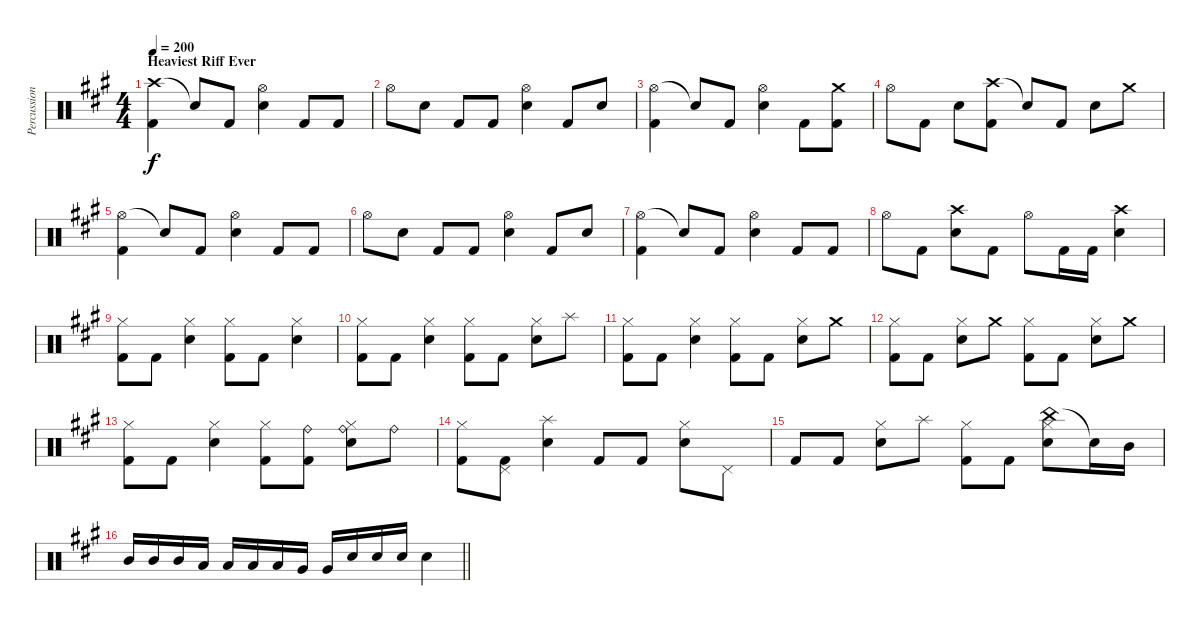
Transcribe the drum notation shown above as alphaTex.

\track ("Percussion" "Percussion") {instrument percussion}
\staff {score}
\articulation defaults
\ts (4 4)
\section ("" "Heaviest Riff Ever")
\tempo 200
\clef neutral
\ks f#minor
("Crash high (hit)" "Kick (hit) 2").4{dy f} "Snare (hit)"{t}.8 "Kick (hit) 2".8 ("Hi-Hat (open)" "Electric Snare (hit)").4 "Kick (hit) 2".8 "Kick (hit) 2".8 |
"Hi-Hat (open)".8 "Electric Snare (hit)".8 "Kick (hit) 2".8 "Kick (hit) 2".8 ("Hi-Hat (open)" "Electric Snare (hit)").4 "Kick (hit) 2".8 "Electric Snare (hit)".8 |
("Hi-Hat (open)" "Kick (hit) 2").4 "Snare (hit)"{t}.8 "Kick (hit) 2".8 ("Hi-Hat (open)" "Electric Snare (hit)").4 "Kick (hit) 2".8 ("Crash medium (hit)" "Kick (hit) 2").8 |
"Hi-Hat (open)".8 "Kick (hit) 2".8 "Electric Snare (hit)".8 ("Crash high (hit)" "Kick (hit) 2").8 "Snare (hit)"{t}.8 "Kick (hit) 2".8 "Electric Snare (hit)".8 "Crash medium (hit)".8 |
("Hi-Hat (open)" "Kick (hit) 2").4 "Snare (hit)"{t}.8 "Kick (hit) 2".8 ("Hi-Hat (open)" "Electric Snare (hit)").4 "Kick (hit) 2".8 "Kick (hit) 2".8 |
"Hi-Hat (open)".8 "Electric Snare (hit)".8 "Kick (hit) 2".8 "Kick (hit) 2".8 ("Hi-Hat (open)" "Electric Snare (hit)").4 "Kick (hit) 2".8 "Electric Snare (hit)".8 |
("Hi-Hat (open)" "Kick (hit) 2").4 "Snare (hit)"{t}.8 "Kick (hit) 2".8 ("Hi-Hat (open)" "Electric Snare (hit)").4 "Kick (hit) 2".8 "Kick (hit) 2".8 |
"Hi-Hat (open)".8 "Kick (hit) 2".8 ("Crash high (hit)" "Electric Snare (hit)").8 "Kick (hit) 2".8 "Hi-Hat (open)".8 "Kick (hit) 2".16 "Kick (hit) 2".16 ("Crash high (hit)" "Electric Snare (hit)").4 |
("Hi-Hat (closed)" "Kick (hit) 2").8 "Kick (hit) 2".8 ("Hi-Hat (closed)" "Electric Snare (hit)").4 ("Hi-Hat (closed)" "Kick (hit) 2").8 "Kick (hit) 2".8 ("Hi-Hat (closed)" "Electric Snare (hit)").4 |
("Hi-Hat (closed)" "Kick (hit) 2").8 "Kick (hit) 2".8 ("Hi-Hat (closed)" "Electric Snare (hit)").4 ("Hi-Hat (closed)" "Kick (hit) 2").8 "Kick (hit) 2".8 ("Hi-Hat (closed)" "Electric Snare (hit)").8 "Splash (hit)".8 |
("Hi-Hat (closed)" "Kick (hit) 2").8 "Kick (hit) 2".8 ("Hi-Hat (closed)" "Electric Snare (hit)").4 ("Hi-Hat (closed)" "Kick (hit) 2").8 "Kick (hit) 2".8 ("Hi-Hat (closed)" "Electric Snare (hit)").8 "Crash medium (hit)".8 |
("Hi-Hat (closed)" "Kick (hit) 2").8 "Kick (hit) 2".8 ("Hi-Hat (closed)" "Electric Snare (hit)").8 "Crash medium (hit)".8 ("Hi-Hat (closed)" "Kick (hit) 2").8 "Kick (hit) 2".8 ("Hi-Hat (closed)" "Electric Snare (hit)").8 "Crash medium (hit)".8 |
("Hi-Hat (closed)" "Kick (hit) 2").8 "Kick (hit) 2".8 ("Hi-Hat (closed)" "Electric Snare (hit)").4 ("Hi-Hat (closed)" "Kick (hit) 2").8 ("Ride (bell)" "Kick (hit) 2").8 ("Ride (bell)" "Hi-Hat (closed)" "Electric Snare (hit)").8 "Ride (bell)".8 |
("Hi-Hat (closed)" "Kick (hit) 2").8 ("Pedal Hi-Hat (hit)" "Kick (hit) 2").8 ("Splash (hit)" "Electric Snare (hit)").4 "Kick (hit) 2".8 "Kick (hit) 2".8 ("Hi-Hat (closed)" "Electric Snare (hit)").8 "Pedal Hi-Hat (hit)".8 |
"Kick (hit) 2".8 "Kick (hit) 2".8 ("Hi-Hat (closed)" "Electric Snare (hit)").8 "Splash (hit)".8 ("Hi-Hat (closed)" "Kick (hit) 2").8 "Kick (hit) 2".8 ("China (hit)" "Hi-Hat (closed)" "Electric Snare (hit)").8 "Snare (hit)"{t}.16 "Mid Tom (hit)".16 |
\barLineRight lightlight "Mid Tom (hit)".16 "Mid Tom (hit)".16 "Mid Tom (hit)".16 "Low Tom (hit)".16 "Low Tom (hit)".16 "Low Tom (hit)".16 "Low Tom (hit)".16 "Very Low Tom (hit)".16 "Very Low Tom (hit)".16 "Electric Snare (hit)".16 "Electric Snare (hit)".16 "Electric Snare (hit)".16 "Electric Snare (hit)".4
